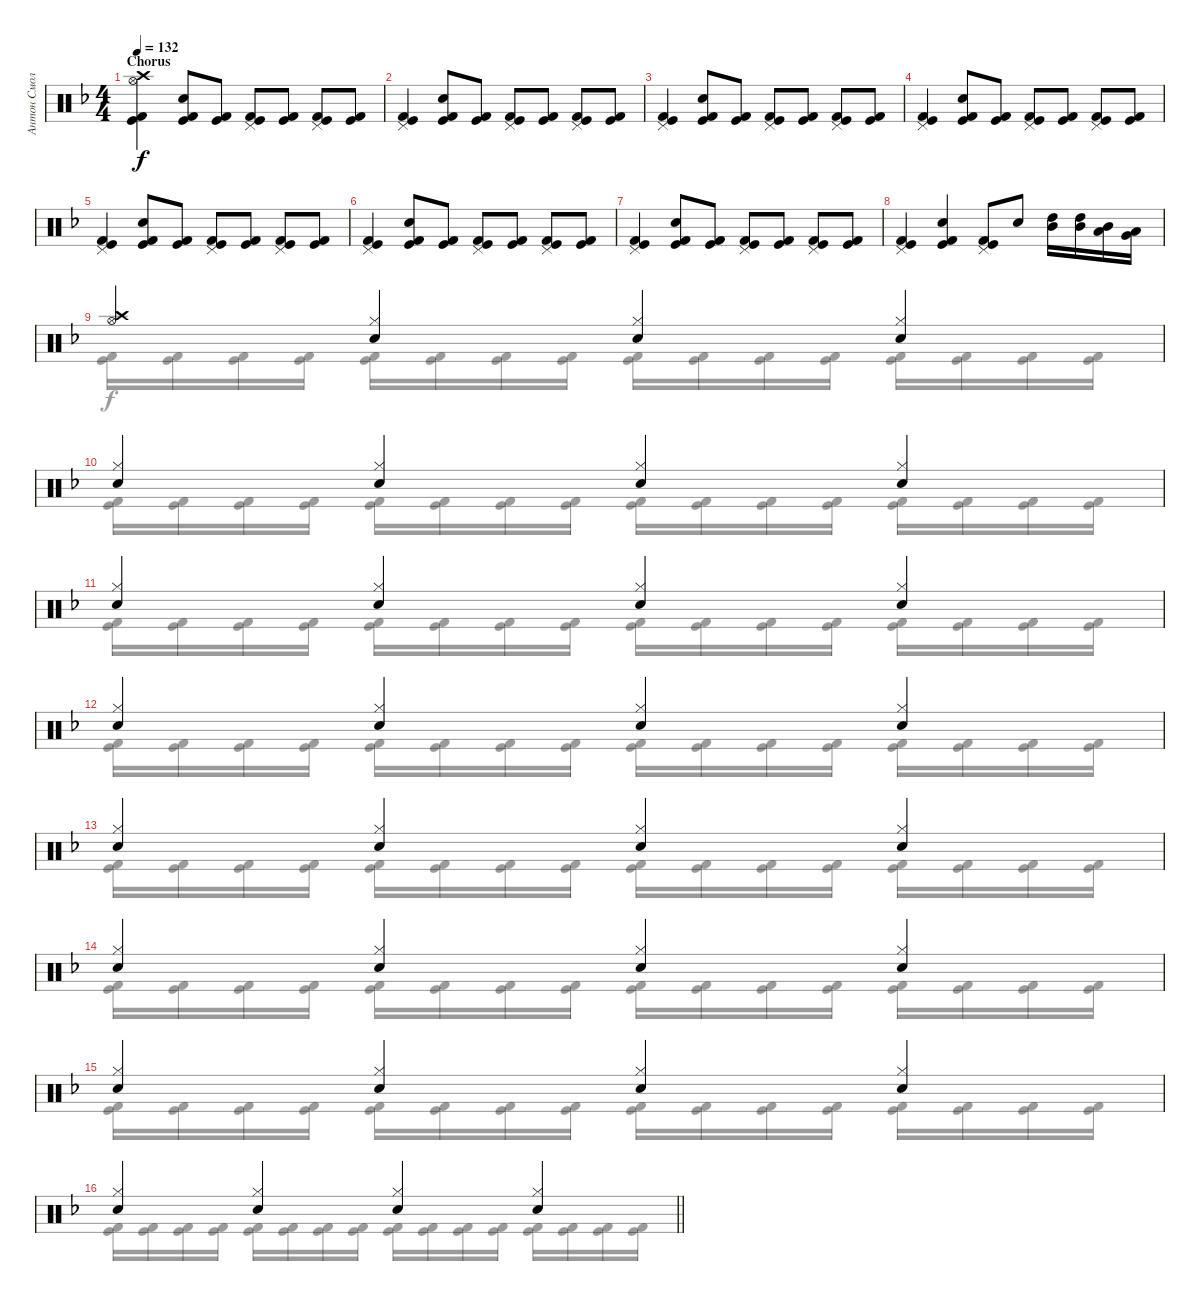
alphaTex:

\track ("Антон Смольянин" "Антон Смол") {instrument percussion}
\staff {score}
\articulation defaults
\voice
\ts (4 4)
\section ("" "Chorus")
\tempo 132
\clef neutral
\ks f
("Kick (hit) 2" "Kick (hit)" "Crash high (hit)" "Hi-Hat (open)").4{dy f} ("Kick (hit) 2" "Kick (hit)" "Snare (hit) 2").8 ("Kick (hit) 2" "Kick (hit)").8 ("Kick (hit) 2" "Kick (hit)" "Pedal Hi-Hat (hit)").8 ("Kick (hit) 2" "Kick (hit)").8 ("Kick (hit) 2" "Kick (hit)" "Pedal Hi-Hat (hit)").8 ("Kick (hit) 2" "Kick (hit)").8 |
("Kick (hit) 2" "Kick (hit)" "Pedal Hi-Hat (hit)").4 ("Kick (hit) 2" "Kick (hit)" "Snare (hit) 2").8 ("Kick (hit) 2" "Kick (hit)").8 ("Kick (hit) 2" "Kick (hit)" "Pedal Hi-Hat (hit)").8 ("Kick (hit) 2" "Kick (hit)").8 ("Kick (hit) 2" "Kick (hit)" "Pedal Hi-Hat (hit)").8 ("Kick (hit) 2" "Kick (hit)").8 |
("Kick (hit) 2" "Kick (hit)" "Pedal Hi-Hat (hit)").4 ("Kick (hit) 2" "Kick (hit)" "Snare (hit) 2").8 ("Kick (hit) 2" "Kick (hit)").8 ("Kick (hit) 2" "Kick (hit)" "Pedal Hi-Hat (hit)").8 ("Kick (hit) 2" "Kick (hit)").8 ("Kick (hit) 2" "Kick (hit)" "Pedal Hi-Hat (hit)").8 ("Kick (hit) 2" "Kick (hit)").8 |
("Kick (hit) 2" "Kick (hit)" "Pedal Hi-Hat (hit)").4 ("Kick (hit) 2" "Kick (hit)" "Snare (hit) 2").8 ("Kick (hit) 2" "Kick (hit)").8 ("Kick (hit) 2" "Kick (hit)" "Pedal Hi-Hat (hit)").8 ("Kick (hit) 2" "Kick (hit)").8 ("Kick (hit) 2" "Kick (hit)" "Pedal Hi-Hat (hit)").8 ("Kick (hit) 2" "Kick (hit)").8 |
("Kick (hit) 2" "Kick (hit)" "Pedal Hi-Hat (hit)").4 ("Kick (hit) 2" "Kick (hit)" "Snare (hit) 2").8 ("Kick (hit) 2" "Kick (hit)").8 ("Kick (hit) 2" "Kick (hit)" "Pedal Hi-Hat (hit)").8 ("Kick (hit) 2" "Kick (hit)").8 ("Kick (hit) 2" "Kick (hit)" "Pedal Hi-Hat (hit)").8 ("Kick (hit) 2" "Kick (hit)").8 |
("Kick (hit) 2" "Kick (hit)" "Pedal Hi-Hat (hit)").4 ("Kick (hit) 2" "Kick (hit)" "Snare (hit) 2").8 ("Kick (hit) 2" "Kick (hit)").8 ("Kick (hit) 2" "Kick (hit)" "Pedal Hi-Hat (hit)").8 ("Kick (hit) 2" "Kick (hit)").8 ("Kick (hit) 2" "Kick (hit)" "Pedal Hi-Hat (hit)").8 ("Kick (hit) 2" "Kick (hit)").8 |
("Kick (hit) 2" "Kick (hit)" "Pedal Hi-Hat (hit)").4 ("Kick (hit) 2" "Kick (hit)" "Snare (hit) 2").8 ("Kick (hit) 2" "Kick (hit)").8 ("Kick (hit) 2" "Kick (hit)" "Pedal Hi-Hat (hit)").8 ("Kick (hit) 2" "Kick (hit)").8 ("Kick (hit) 2" "Kick (hit)" "Pedal Hi-Hat (hit)").8 ("Kick (hit) 2" "Kick (hit)").8 |
("Kick (hit) 2" "Kick (hit)" "Pedal Hi-Hat (hit)").4 ("Kick (hit) 2" "Kick (hit)" "Snare (hit) 2").4 ("Kick (hit) 2" "Kick (hit)" "Pedal Hi-Hat (hit)").8 "Snare (hit) 2".8 ("High Tom (hit)" "Mid Tom (hit)").16 ("Mid Tom (hit)" "High Tom (hit)").16 ("Low Tom (hit)" "Mid Tom (hit)").16 ("Very Low Tom (hit)" "Low Tom (hit)").16 |
("Hi-Hat (open)" "Crash high (hit)").4 ("Hi-Hat (closed)" "Snare (hit) 2").4 ("Hi-Hat (closed)" "Snare (hit) 2").4 ("Hi-Hat (closed)" "Snare (hit) 2").4 |
("Hi-Hat (closed)" "Snare (hit) 2").4 ("Hi-Hat (closed)" "Snare (hit) 2").4 ("Hi-Hat (closed)" "Snare (hit) 2").4 ("Hi-Hat (closed)" "Snare (hit) 2").4 |
("Hi-Hat (closed)" "Snare (hit) 2").4 ("Hi-Hat (closed)" "Snare (hit) 2").4 ("Hi-Hat (closed)" "Snare (hit) 2").4 ("Hi-Hat (closed)" "Snare (hit) 2").4 |
("Hi-Hat (closed)" "Snare (hit) 2").4 ("Hi-Hat (closed)" "Snare (hit) 2").4 ("Hi-Hat (closed)" "Snare (hit) 2").4 ("Hi-Hat (closed)" "Snare (hit) 2").4 |
("Hi-Hat (closed)" "Snare (hit) 2").4 ("Hi-Hat (closed)" "Snare (hit) 2").4 ("Hi-Hat (closed)" "Snare (hit) 2").4 ("Hi-Hat (closed)" "Snare (hit) 2").4 |
("Hi-Hat (closed)" "Snare (hit) 2").4 ("Hi-Hat (closed)" "Snare (hit) 2").4 ("Hi-Hat (closed)" "Snare (hit) 2").4 ("Hi-Hat (closed)" "Snare (hit) 2").4 |
("Hi-Hat (closed)" "Snare (hit) 2").4 ("Hi-Hat (closed)" "Snare (hit) 2").4 ("Hi-Hat (closed)" "Snare (hit) 2").4 ("Hi-Hat (closed)" "Snare (hit) 2").4 |
\barLineRight lightlight
("Hi-Hat (closed)" "Snare (hit) 2").4 ("Hi-Hat (closed)" "Snare (hit) 2").4 ("Hi-Hat (closed)" "Snare (hit) 2").4 ("Hi-Hat (closed)" "Snare (hit) 2").4
\voice
\clef neutral
\ottava regular
\simile none
\ks f
|
|
|
|
|
|
|
|
("Kick (hit) 2" "Kick (hit)").16 ("Kick (hit) 2" "Kick (hit)").16 ("Kick (hit) 2" "Kick (hit)").16 ("Kick (hit) 2" "Kick (hit)").16 ("Kick (hit) 2" "Kick (hit)").16 ("Kick (hit) 2" "Kick (hit)").16 ("Kick (hit) 2" "Kick (hit)").16 ("Kick (hit) 2" "Kick (hit)").16 ("Kick (hit) 2" "Kick (hit)").16 ("Kick (hit) 2" "Kick (hit)").16 ("Kick (hit) 2" "Kick (hit)").16 ("Kick (hit) 2" "Kick (hit)").16 ("Kick (hit) 2" "Kick (hit)").16 ("Kick (hit) 2" "Kick (hit)").16 ("Kick (hit) 2" "Kick (hit)").16 ("Kick (hit) 2" "Kick (hit)").16 |
("Kick (hit) 2" "Kick (hit)").16 ("Kick (hit) 2" "Kick (hit)").16 ("Kick (hit) 2" "Kick (hit)").16 ("Kick (hit) 2" "Kick (hit)").16 ("Kick (hit) 2" "Kick (hit)").16 ("Kick (hit) 2" "Kick (hit)").16 ("Kick (hit) 2" "Kick (hit)").16 ("Kick (hit) 2" "Kick (hit)").16 ("Kick (hit) 2" "Kick (hit)").16 ("Kick (hit) 2" "Kick (hit)").16 ("Kick (hit) 2" "Kick (hit)").16 ("Kick (hit) 2" "Kick (hit)").16 ("Kick (hit) 2" "Kick (hit)").16 ("Kick (hit) 2" "Kick (hit)").16 ("Kick (hit) 2" "Kick (hit)").16 ("Kick (hit) 2" "Kick (hit)").16 |
("Kick (hit) 2" "Kick (hit)").16 ("Kick (hit) 2" "Kick (hit)").16 ("Kick (hit) 2" "Kick (hit)").16 ("Kick (hit) 2" "Kick (hit)").16 ("Kick (hit) 2" "Kick (hit)").16 ("Kick (hit) 2" "Kick (hit)").16 ("Kick (hit) 2" "Kick (hit)").16 ("Kick (hit) 2" "Kick (hit)").16 ("Kick (hit) 2" "Kick (hit)").16 ("Kick (hit) 2" "Kick (hit)").16 ("Kick (hit) 2" "Kick (hit)").16 ("Kick (hit) 2" "Kick (hit)").16 ("Kick (hit) 2" "Kick (hit)").16 ("Kick (hit) 2" "Kick (hit)").16 ("Kick (hit) 2" "Kick (hit)").16 ("Kick (hit) 2" "Kick (hit)").16 |
("Kick (hit) 2" "Kick (hit)").16 ("Kick (hit) 2" "Kick (hit)").16 ("Kick (hit) 2" "Kick (hit)").16 ("Kick (hit) 2" "Kick (hit)").16 ("Kick (hit) 2" "Kick (hit)").16 ("Kick (hit) 2" "Kick (hit)").16 ("Kick (hit) 2" "Kick (hit)").16 ("Kick (hit) 2" "Kick (hit)").16 ("Kick (hit) 2" "Kick (hit)").16 ("Kick (hit) 2" "Kick (hit)").16 ("Kick (hit) 2" "Kick (hit)").16 ("Kick (hit) 2" "Kick (hit)").16 ("Kick (hit) 2" "Kick (hit)").16 ("Kick (hit) 2" "Kick (hit)").16 ("Kick (hit) 2" "Kick (hit)").16 ("Kick (hit) 2" "Kick (hit)").16 |
("Kick (hit) 2" "Kick (hit)").16 ("Kick (hit) 2" "Kick (hit)").16 ("Kick (hit) 2" "Kick (hit)").16 ("Kick (hit) 2" "Kick (hit)").16 ("Kick (hit) 2" "Kick (hit)").16 ("Kick (hit) 2" "Kick (hit)").16 ("Kick (hit) 2" "Kick (hit)").16 ("Kick (hit) 2" "Kick (hit)").16 ("Kick (hit) 2" "Kick (hit)").16 ("Kick (hit) 2" "Kick (hit)").16 ("Kick (hit) 2" "Kick (hit)").16 ("Kick (hit) 2" "Kick (hit)").16 ("Kick (hit) 2" "Kick (hit)").16 ("Kick (hit) 2" "Kick (hit)").16 ("Kick (hit) 2" "Kick (hit)").16 ("Kick (hit) 2" "Kick (hit)").16 |
("Kick (hit) 2" "Kick (hit)").16 ("Kick (hit) 2" "Kick (hit)").16 ("Kick (hit) 2" "Kick (hit)").16 ("Kick (hit) 2" "Kick (hit)").16 ("Kick (hit) 2" "Kick (hit)").16 ("Kick (hit) 2" "Kick (hit)").16 ("Kick (hit) 2" "Kick (hit)").16 ("Kick (hit) 2" "Kick (hit)").16 ("Kick (hit) 2" "Kick (hit)").16 ("Kick (hit) 2" "Kick (hit)").16 ("Kick (hit) 2" "Kick (hit)").16 ("Kick (hit) 2" "Kick (hit)").16 ("Kick (hit) 2" "Kick (hit)").16 ("Kick (hit) 2" "Kick (hit)").16 ("Kick (hit) 2" "Kick (hit)").16 ("Kick (hit) 2" "Kick (hit)").16 |
("Kick (hit) 2" "Kick (hit)").16 ("Kick (hit) 2" "Kick (hit)").16 ("Kick (hit) 2" "Kick (hit)").16 ("Kick (hit) 2" "Kick (hit)").16 ("Kick (hit) 2" "Kick (hit)").16 ("Kick (hit) 2" "Kick (hit)").16 ("Kick (hit) 2" "Kick (hit)").16 ("Kick (hit) 2" "Kick (hit)").16 ("Kick (hit) 2" "Kick (hit)").16 ("Kick (hit) 2" "Kick (hit)").16 ("Kick (hit) 2" "Kick (hit)").16 ("Kick (hit) 2" "Kick (hit)").16 ("Kick (hit) 2" "Kick (hit)").16 ("Kick (hit) 2" "Kick (hit)").16 ("Kick (hit) 2" "Kick (hit)").16 ("Kick (hit) 2" "Kick (hit)").16 |
\barLineRight lightlight
("Kick (hit) 2" "Kick (hit)").16 ("Kick (hit) 2" "Kick (hit)").16 ("Kick (hit) 2" "Kick (hit)").16 ("Kick (hit) 2" "Kick (hit)").16 ("Kick (hit) 2" "Kick (hit)").16 ("Kick (hit) 2" "Kick (hit)").16 ("Kick (hit) 2" "Kick (hit)").16 ("Kick (hit) 2" "Kick (hit)").16 ("Kick (hit) 2" "Kick (hit)").16 ("Kick (hit) 2" "Kick (hit)").16 ("Kick (hit) 2" "Kick (hit)").16 ("Kick (hit) 2" "Kick (hit)").16 ("Kick (hit) 2" "Kick (hit)").16 ("Kick (hit) 2" "Kick (hit)").16 ("Kick (hit) 2" "Kick (hit)").16 ("Kick (hit) 2" "Kick (hit)").16
